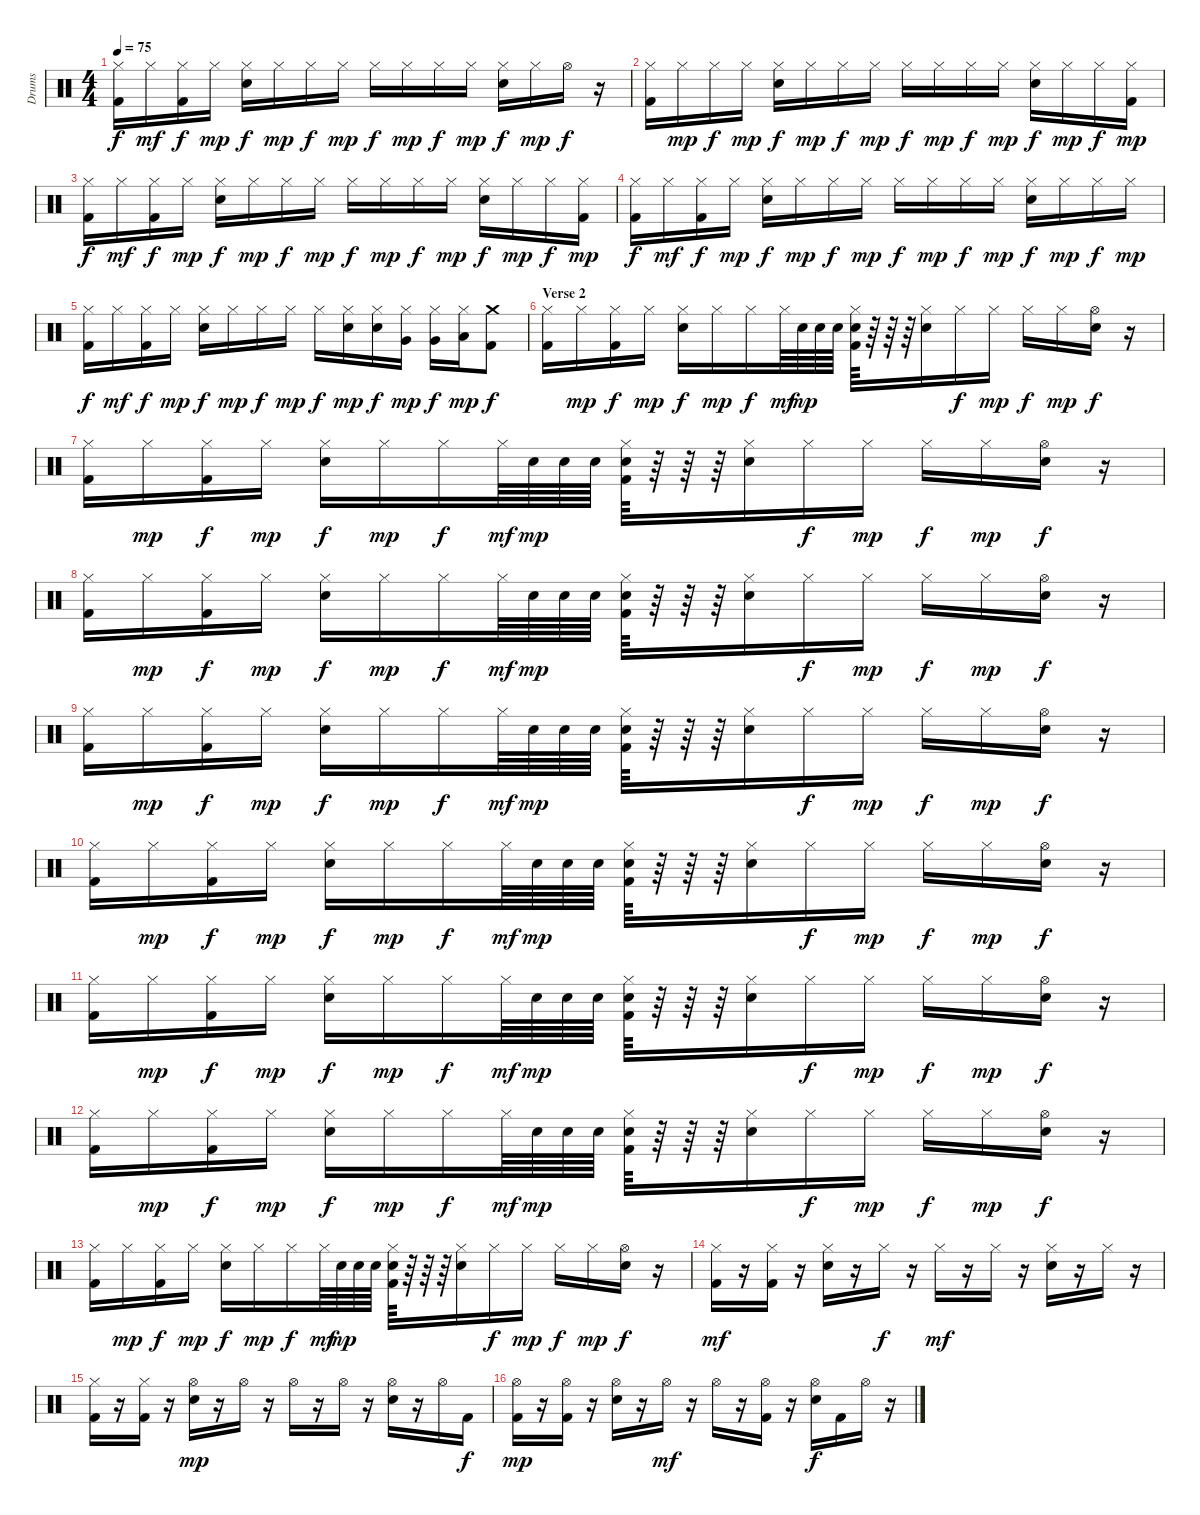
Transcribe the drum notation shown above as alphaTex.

\track ("Drums" "Drums") {instrument percussion}
\staff {score}
\articulation defaults
\ts (4 4)
\tempo 75
\clef neutral
\ks c
("Hi-Hat (closed)" "Kick (hit) 2").16{dy f} "Hi-Hat (closed)".16{dy mf} ("Hi-Hat (closed)" "Kick (hit) 2").16{dy f} "Hi-Hat (closed)".16{dy mp} ("Hi-Hat (closed)" "Snare (hit) 2").16{dy f} "Hi-Hat (closed)".16{dy mp} "Hi-Hat (closed)".16{dy f} "Hi-Hat (closed)".16{dy mp} "Hi-Hat (closed)".16{dy f} "Hi-Hat (closed)".16{dy mp} "Hi-Hat (closed)".16{dy f} "Hi-Hat (closed)".16{dy mp} ("Hi-Hat (closed)" "Snare (hit) 2").16{dy f} "Hi-Hat (closed)".16{dy mp} "Hi-Hat (open)".16{dy f} r.16 |
("Hi-Hat (closed)" "Kick (hit) 2").16 "Hi-Hat (closed)".16{dy mp} "Hi-Hat (closed)".16{dy f} "Hi-Hat (closed)".16{dy mp} ("Hi-Hat (closed)" "Snare (hit) 2").16{dy f} "Hi-Hat (closed)".16{dy mp} "Hi-Hat (closed)".16{dy f} "Hi-Hat (closed)".16{dy mp} "Hi-Hat (closed)".16{dy f} "Hi-Hat (closed)".16{dy mp} "Hi-Hat (closed)".16{dy f} "Hi-Hat (closed)".16{dy mp} ("Hi-Hat (closed)" "Snare (hit) 2").16{dy f} "Hi-Hat (closed)".16{dy mp} "Hi-Hat (closed)".16{dy f} ("Hi-Hat (closed)" "Kick (hit) 2").16{dy mp} |
("Hi-Hat (closed)" "Kick (hit) 2").16{dy f} "Hi-Hat (closed)".16{dy mf} ("Hi-Hat (closed)" "Kick (hit) 2").16{dy f} "Hi-Hat (closed)".16{dy mp} ("Hi-Hat (closed)" "Snare (hit) 2").16{dy f} "Hi-Hat (closed)".16{dy mp} "Hi-Hat (closed)".16{dy f} "Hi-Hat (closed)".16{dy mp} "Hi-Hat (closed)".16{dy f} "Hi-Hat (closed)".16{dy mp} "Hi-Hat (closed)".16{dy f} "Hi-Hat (closed)".16{dy mp} ("Hi-Hat (closed)" "Snare (hit) 2").16{dy f} "Hi-Hat (closed)".16{dy mp} "Hi-Hat (closed)".16{dy f} ("Hi-Hat (closed)" "Kick (hit) 2").16{dy mp} |
("Hi-Hat (closed)" "Kick (hit) 2").16{dy f} "Hi-Hat (closed)".16{dy mf} ("Hi-Hat (closed)" "Kick (hit) 2").16{dy f} "Hi-Hat (closed)".16{dy mp} ("Hi-Hat (closed)" "Snare (hit) 2").16{dy f} "Hi-Hat (closed)".16{dy mp} "Hi-Hat (closed)".16{dy f} "Hi-Hat (closed)".16{dy mp} "Hi-Hat (closed)".16{dy f} "Hi-Hat (closed)".16{dy mp} "Hi-Hat (closed)".16{dy f} "Hi-Hat (closed)".16{dy mp} ("Hi-Hat (closed)" "Snare (hit) 2").16{dy f} "Hi-Hat (closed)".16{dy mp} "Hi-Hat (closed)".16{dy f} "Hi-Hat (closed)".16{dy mp} |
("Hi-Hat (closed)" "Kick (hit) 2").16{dy f} "Hi-Hat (closed)".16{dy mf} ("Hi-Hat (closed)" "Kick (hit) 2").16{dy f} "Hi-Hat (closed)".16{dy mp} ("Hi-Hat (closed)" "Snare (hit) 2").16{dy f} "Hi-Hat (closed)".16{dy mp} "Hi-Hat (closed)".16{dy f} "Hi-Hat (closed)".16{dy mp} "Hi-Hat (closed)".16{dy f} ("Hi-Hat (closed)" "Snare (hit) 2").16{dy mp} ("Hi-Hat (closed)" "Snare (hit) 2").16{dy f} ("Hi-Hat (closed)" "Very Low Tom (hit)").16{dy mp} ("Hi-Hat (closed)" "Very Low Tom (hit)").16{dy f} ("Hi-Hat (closed)" "Low Floor Tom (hit)").16{dy mp} ("Crash medium (hit)" "Kick (hit) 2").8{dy f} |
\section ("" "Verse 2")
("Hi-Hat (closed)" "Kick (hit) 2").16 "Hi-Hat (closed)".16{dy mp} ("Hi-Hat (closed)" "Kick (hit) 2").16{dy f} "Hi-Hat (closed)".16{dy mp} ("Hi-Hat (closed)" "Snare (hit) 2").16{dy f} "Hi-Hat (closed)".16{dy mp} "Hi-Hat (closed)".16{dy f} "Hi-Hat (closed)".64{dy mf} "Snare (hit) 2".64{dy mp} "Snare (hit) 2".64 "Snare (hit) 2".64 ("Hi-Hat (closed)" "Snare (hit) 2" "Kick (hit) 2").64 r.64 r.64 r.64 ("Hi-Hat (closed)" "Snare (hit) 2").16 "Hi-Hat (closed)".16{dy f} "Hi-Hat (closed)".16{dy mp} "Hi-Hat (closed)".16{dy f} "Hi-Hat (closed)".16{dy mp} ("Hi-Hat (open)" "Snare (hit) 2").16{dy f} r.16 |
("Hi-Hat (closed)" "Kick (hit) 2").16 "Hi-Hat (closed)".16{dy mp} ("Hi-Hat (closed)" "Kick (hit) 2").16{dy f} "Hi-Hat (closed)".16{dy mp} ("Hi-Hat (closed)" "Snare (hit) 2").16{dy f} "Hi-Hat (closed)".16{dy mp} "Hi-Hat (closed)".16{dy f} "Hi-Hat (closed)".64{dy mf} "Snare (hit) 2".64{dy mp} "Snare (hit) 2".64 "Snare (hit) 2".64 ("Hi-Hat (closed)" "Snare (hit) 2" "Kick (hit) 2").64 r.64 r.64 r.64 ("Hi-Hat (closed)" "Snare (hit) 2").16 "Hi-Hat (closed)".16{dy f} "Hi-Hat (closed)".16{dy mp} "Hi-Hat (closed)".16{dy f} "Hi-Hat (closed)".16{dy mp} ("Hi-Hat (open)" "Snare (hit) 2").16{dy f} r.16 |
("Hi-Hat (closed)" "Kick (hit) 2").16 "Hi-Hat (closed)".16{dy mp} ("Hi-Hat (closed)" "Kick (hit) 2").16{dy f} "Hi-Hat (closed)".16{dy mp} ("Hi-Hat (closed)" "Snare (hit) 2").16{dy f} "Hi-Hat (closed)".16{dy mp} "Hi-Hat (closed)".16{dy f} "Hi-Hat (closed)".64{dy mf} "Snare (hit) 2".64{dy mp} "Snare (hit) 2".64 "Snare (hit) 2".64 ("Hi-Hat (closed)" "Snare (hit) 2" "Kick (hit) 2").64 r.64 r.64 r.64 ("Hi-Hat (closed)" "Snare (hit) 2").16 "Hi-Hat (closed)".16{dy f} "Hi-Hat (closed)".16{dy mp} "Hi-Hat (closed)".16{dy f} "Hi-Hat (closed)".16{dy mp} ("Hi-Hat (open)" "Snare (hit) 2").16{dy f} r.16 |
("Hi-Hat (closed)" "Kick (hit) 2").16 "Hi-Hat (closed)".16{dy mp} ("Hi-Hat (closed)" "Kick (hit) 2").16{dy f} "Hi-Hat (closed)".16{dy mp} ("Hi-Hat (closed)" "Snare (hit) 2").16{dy f} "Hi-Hat (closed)".16{dy mp} "Hi-Hat (closed)".16{dy f} "Hi-Hat (closed)".64{dy mf} "Snare (hit) 2".64{dy mp} "Snare (hit) 2".64 "Snare (hit) 2".64 ("Hi-Hat (closed)" "Snare (hit) 2" "Kick (hit) 2").64 r.64 r.64 r.64 ("Hi-Hat (closed)" "Snare (hit) 2").16 "Hi-Hat (closed)".16{dy f} "Hi-Hat (closed)".16{dy mp} "Hi-Hat (closed)".16{dy f} "Hi-Hat (closed)".16{dy mp} ("Hi-Hat (open)" "Snare (hit) 2").16{dy f} r.16 |
("Hi-Hat (closed)" "Kick (hit) 2").16 "Hi-Hat (closed)".16{dy mp} ("Hi-Hat (closed)" "Kick (hit) 2").16{dy f} "Hi-Hat (closed)".16{dy mp} ("Hi-Hat (closed)" "Snare (hit) 2").16{dy f} "Hi-Hat (closed)".16{dy mp} "Hi-Hat (closed)".16{dy f} "Hi-Hat (closed)".64{dy mf} "Snare (hit) 2".64{dy mp} "Snare (hit) 2".64 "Snare (hit) 2".64 ("Hi-Hat (closed)" "Snare (hit) 2" "Kick (hit) 2").64 r.64 r.64 r.64 ("Hi-Hat (closed)" "Snare (hit) 2").16 "Hi-Hat (closed)".16{dy f} "Hi-Hat (closed)".16{dy mp} "Hi-Hat (closed)".16{dy f} "Hi-Hat (closed)".16{dy mp} ("Hi-Hat (open)" "Snare (hit) 2").16{dy f} r.16 |
("Hi-Hat (closed)" "Kick (hit) 2").16 "Hi-Hat (closed)".16{dy mp} ("Hi-Hat (closed)" "Kick (hit) 2").16{dy f} "Hi-Hat (closed)".16{dy mp} ("Hi-Hat (closed)" "Snare (hit) 2").16{dy f} "Hi-Hat (closed)".16{dy mp} "Hi-Hat (closed)".16{dy f} "Hi-Hat (closed)".64{dy mf} "Snare (hit) 2".64{dy mp} "Snare (hit) 2".64 "Snare (hit) 2".64 ("Hi-Hat (closed)" "Snare (hit) 2" "Kick (hit) 2").64 r.64 r.64 r.64 ("Hi-Hat (closed)" "Snare (hit) 2").16 "Hi-Hat (closed)".16{dy f} "Hi-Hat (closed)".16{dy mp} "Hi-Hat (closed)".16{dy f} "Hi-Hat (closed)".16{dy mp} ("Hi-Hat (open)" "Snare (hit) 2").16{dy f} r.16 |
("Hi-Hat (closed)" "Kick (hit) 2").16 "Hi-Hat (closed)".16{dy mp} ("Hi-Hat (closed)" "Kick (hit) 2").16{dy f} "Hi-Hat (closed)".16{dy mp} ("Hi-Hat (closed)" "Snare (hit) 2").16{dy f} "Hi-Hat (closed)".16{dy mp} "Hi-Hat (closed)".16{dy f} "Hi-Hat (closed)".64{dy mf} "Snare (hit) 2".64{dy mp} "Snare (hit) 2".64 "Snare (hit) 2".64 ("Hi-Hat (closed)" "Snare (hit) 2" "Kick (hit) 2").64 r.64 r.64 r.64 ("Hi-Hat (closed)" "Snare (hit) 2").16 "Hi-Hat (closed)".16{dy f} "Hi-Hat (closed)".16{dy mp} "Hi-Hat (closed)".16{dy f} "Hi-Hat (closed)".16{dy mp} ("Hi-Hat (open)" "Snare (hit) 2").16{dy f} r.16 |
("Hi-Hat (closed)" "Kick (hit) 2").16 "Hi-Hat (closed)".16{dy mp} ("Hi-Hat (closed)" "Kick (hit) 2").16{dy f} "Hi-Hat (closed)".16{dy mp} ("Hi-Hat (closed)" "Snare (hit) 2").16{dy f} "Hi-Hat (closed)".16{dy mp} "Hi-Hat (closed)".16{dy f} "Hi-Hat (closed)".64{dy mf} "Snare (hit) 2".64{dy mp} "Snare (hit) 2".64 "Snare (hit) 2".64 ("Hi-Hat (closed)" "Snare (hit) 2" "Kick (hit) 2").64 r.64 r.64 r.64 ("Hi-Hat (closed)" "Snare (hit) 2").16 "Hi-Hat (closed)".16{dy f} "Hi-Hat (closed)".16{dy mp} "Hi-Hat (closed)".16{dy f} "Hi-Hat (closed)".16{dy mp} ("Hi-Hat (open)" "Snare (hit) 2").16{dy f} r.16 |
("Hi-Hat (closed)" "Kick (hit) 2").16{dy mf} r.16 ("Hi-Hat (closed)" "Kick (hit) 2").16 r.16 ("Hi-Hat (closed)" "Snare (hit) 2").16 r.16 "Hi-Hat (closed)".16{dy f} r.16 "Hi-Hat (closed)".16{dy mf} r.16 "Hi-Hat (closed)".16 r.16 ("Hi-Hat (closed)" "Snare (hit) 2").16 r.16 "Hi-Hat (closed)".16 r.16 |
("Hi-Hat (closed)" "Kick (hit) 2").16 r.16 ("Hi-Hat (closed)" "Kick (hit) 2").16 r.16 ("Hi-Hat (open)" "Snare (hit) 2").16{dy mp} r.16 "Hi-Hat (open)".16 r.16 "Hi-Hat (open)".16 r.16 "Hi-Hat (open)".16 r.16 ("Hi-Hat (open)" "Snare (hit) 2").16 r.16 "Hi-Hat (open)".16 "Kick (hit) 2".16{dy f} |
("Hi-Hat (open)" "Kick (hit) 2").16{dy mp} r.16 ("Hi-Hat (open)" "Kick (hit) 2").16 r.16 ("Hi-Hat (open)" "Snare (hit) 2").16 r.16 "Hi-Hat (open)".16{dy mf} r.16 "Hi-Hat (open)".16 r.16 ("Hi-Hat (open)" "Kick (hit) 2").16 r.16 ("Hi-Hat (open)" "Snare (hit) 2").16{dy f} "Kick (hit) 2".16 "Hi-Hat (open)".16 r.16
